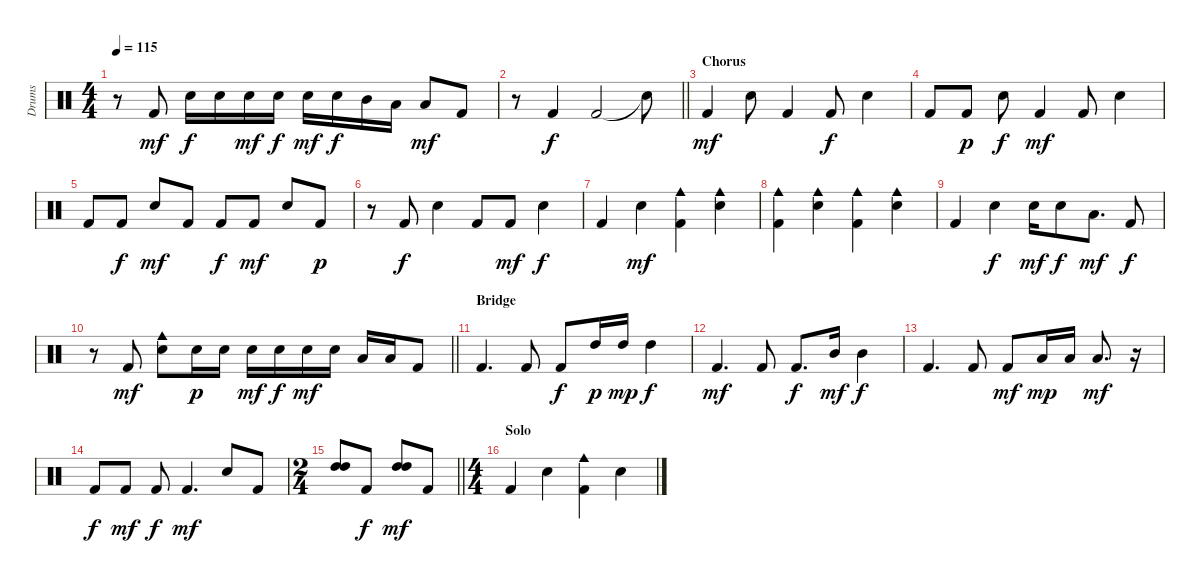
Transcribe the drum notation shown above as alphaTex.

\track ("Drums" "Drums") {instrument percussion}
\staff {score}
\articulation defaults
\ts (4 4)
\tempo 115
\clef neutral
\ks c
r.8{dy mf} "Kick (hit) 2".8 "Electric Snare (hit)".16{dy f} "Electric Snare (hit)".16 "Electric Snare (hit)".16{dy mf} "Electric Snare (hit)".16{dy f} "Electric Snare (hit)".16{dy mf} "Electric Snare (hit)".16{dy f} "Mid Tom (hit)".16 "Low Tom (hit)".16 "Low Tom (hit)".8{dy mf} "Kick (hit) 2".8 |
\barLineRight lightlight
r.8 "Kick (hit) 2".4{dy f} "Kick (hit) 2".2 "Snare (hit)"{t}.8 |
\section ("" "Chorus")
"Kick (hit) 2".4{dy mf} "Electric Snare (hit)".8 "Kick (hit) 2".4 "Kick (hit) 2".8{dy f} "Electric Snare (hit)".4 |
"Kick (hit) 2".8 "Kick (hit) 2".8{dy p} "Electric Snare (hit)".8{dy f} "Kick (hit) 2".4{dy mf} "Kick (hit) 2".8 "Electric Snare (hit)".4 |
"Kick (hit) 2".8 "Kick (hit) 2".8{dy f} "Electric Snare (hit)".8{dy mf} "Kick (hit) 2".8 "Kick (hit) 2".8{dy f} "Kick (hit) 2".8{dy mf} "Electric Snare (hit)".8 "Kick (hit) 2".8{dy p} |
r.8 "Kick (hit) 2".8{dy f} "Electric Snare (hit)".4 "Kick (hit) 2".8 "Kick (hit) 2".8{dy mf} "Electric Snare (hit)".4{dy f} |
"Kick (hit) 2".4 "Electric Snare (hit)".4{dy mf} ("Cowbell medium (hit)" "Kick (hit) 2").4 ("Cowbell medium (hit)" "Electric Snare (hit)").4 |
("Cowbell medium (hit)" "Kick (hit) 2").4 ("Cowbell medium (hit)" "Electric Snare (hit)").4 ("Cowbell medium (hit)" "Kick (hit) 2").4 ("Cowbell medium (hit)" "Electric Snare (hit)").4 |
"Kick (hit) 2".4 "Electric Snare (hit)".4{dy f} "Electric Snare (hit)".16{dy mf} "Electric Snare (hit)".8{dy f} "Low Tom (hit)".8{d dy mf} "Kick (hit) 2".8{dy f} |
\barLineRight lightlight
r.8 "Kick (hit) 2".8{dy mf} ("Cowbell medium (hit)" "Electric Snare (hit)").8 "Electric Snare (hit)".16{dy p} "Electric Snare (hit)".16 "Electric Snare (hit)".16{dy mf} "Electric Snare (hit)".16{dy f} "Electric Snare (hit)".16{dy mf} "Electric Snare (hit)".16 "Low Tom (hit)".16 "Low Tom (hit)".16 "Kick (hit) 2".8 |
\section ("" "Bridge")
"Kick (hit) 2".4{d} "Kick (hit) 2".8 "Kick (hit) 2".8{dy f} "High Tom (hit)".16{dy p} "High Tom (hit)".16{dy mp} "High Tom (hit)".4{dy f} |
"Kick (hit) 2".4{d dy mf} "Kick (hit) 2".8 "Kick (hit) 2".8{d dy f} "Mid Tom (hit)".16{dy mf} "Mid Tom (hit)".4{dy f} |
"Kick (hit) 2".4{d} "Kick (hit) 2".8 "Kick (hit) 2".8{dy mf} "Low Tom (hit)".16{dy mp} "Low Tom (hit)".16 "Low Tom (hit)".8{d dy mf} r.16 |
"Kick (hit) 2".8{dy f} "Kick (hit) 2".8{dy mf} "Kick (hit) 2".8{dy f} "Kick (hit) 2".4{d dy mf} "Electric Snare (hit)".8 "Kick (hit) 2".8 |
\ts (2 4)
\barLineRight lightlight
("High Tom (hit)" "High Tom (hit)").8 "Kick (hit) 2".8{dy f} ("High Tom (hit)" "High Tom (hit)").8{dy mf} "Kick (hit) 2".8 |
\ts (4 4)
\section ("" "Solo")
"Kick (hit) 2".4 "Electric Snare (hit)".4 ("Cowbell medium (hit)" "Kick (hit) 2").4 "Electric Snare (hit)".4
